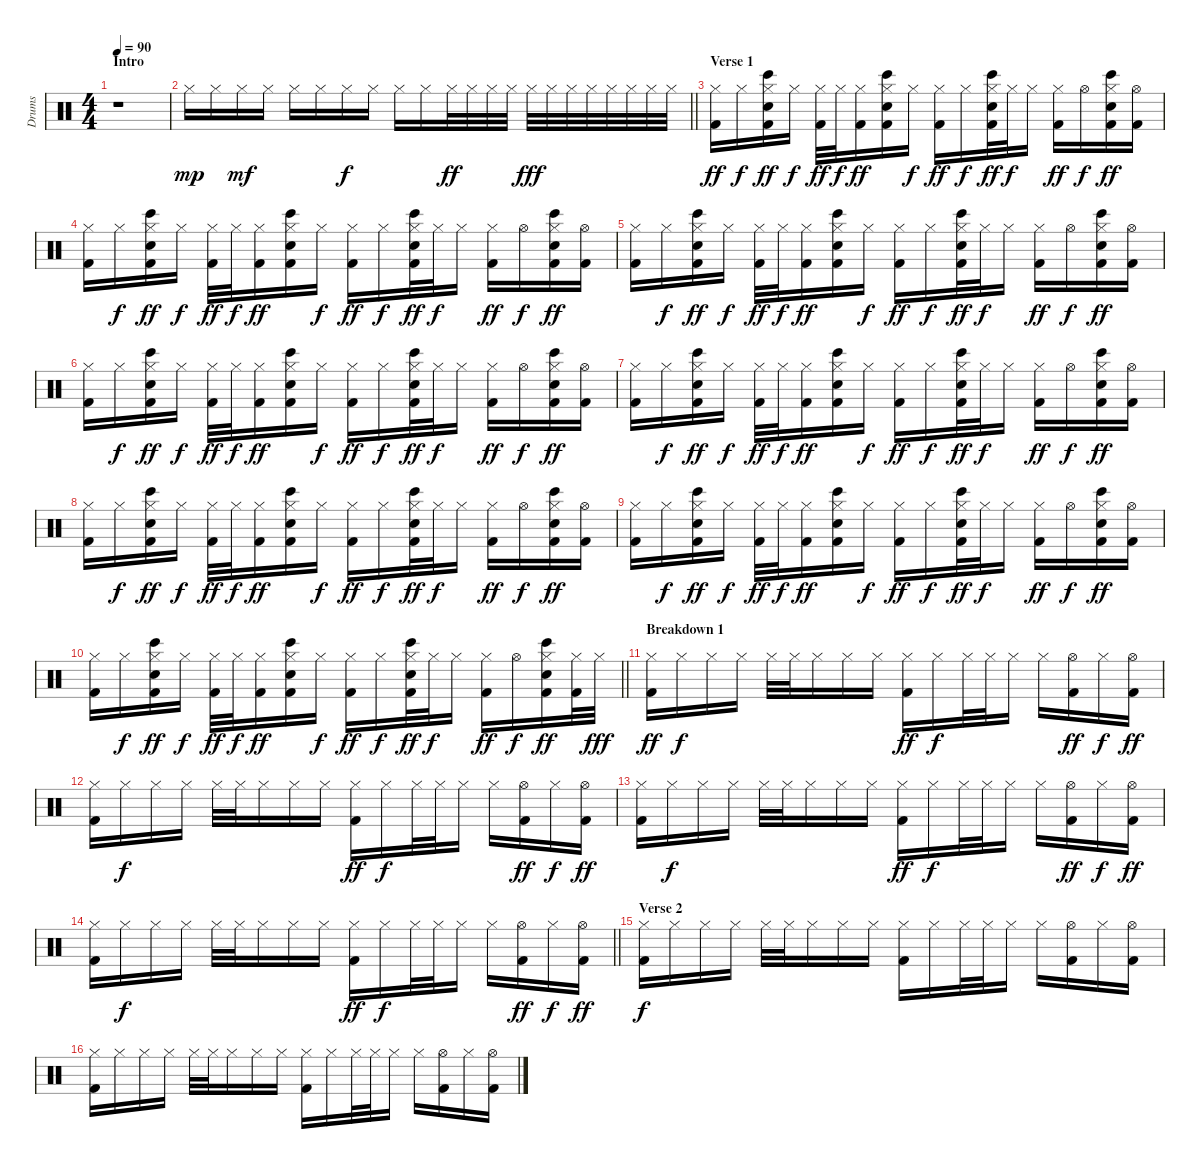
\track ("Drums" "Drums") {instrument percussion}
\staff {score}
\articulation defaults
\ts (4 4)
\section ("" "Intro")
\tempo 90
\clef neutral
\ks c
r.1{dy mp} |
\barLineRight lightlight "Hi-Hat (closed)".16 "Hi-Hat (closed)".16 "Hi-Hat (closed)".16{dy mf} "Hi-Hat (closed)".16 "Hi-Hat (closed)".16 "Hi-Hat (closed)".16 "Hi-Hat (closed)".16{dy f} "Hi-Hat (closed)".16 "Hi-Hat (closed)".16 "Hi-Hat (closed)".16 "Hi-Hat (closed)".32{dy ff} "Hi-Hat (closed)".32 "Hi-Hat (closed)".32 "Hi-Hat (closed)".32 "Hi-Hat (closed)".32{dy fff} "Hi-Hat (closed)".32 "Hi-Hat (closed)".32 "Hi-Hat (closed)".32 "Hi-Hat (closed)".32 "Hi-Hat (closed)".32 "Hi-Hat (closed)".32 "Hi-Hat (closed)".32
|
\section ("" "Verse 1")
("Hi-Hat (closed)" "Kick (hit) 2").16{dy ff} "Hi-Hat (closed)".16{dy f} ("Hi-Hat (closed)" "Electric Snare (hit)" "Bongo High (hit)" "Kick (hit) 2").16{dy ff} "Hi-Hat (closed)".16{dy f} ("Hi-Hat (closed)" "Kick (hit) 2").32{dy ff} "Hi-Hat (closed)".32{dy f} ("Hi-Hat (closed)" "Kick (hit) 2").16{dy ff} ("Hi-Hat (closed)" "Electric Snare (hit)" "Bongo High (hit)" "Kick (hit) 2").16 "Hi-Hat (closed)".16{dy f} ("Hi-Hat (closed)" "Kick (hit) 2").16{dy ff} "Hi-Hat (closed)".16{dy f} ("Hi-Hat (closed)" "Electric Snare (hit)" "Bongo High (hit)" "Kick (hit) 2").32{dy ff} "Hi-Hat (closed)".32{dy f} "Hi-Hat (closed)".16 ("Hi-Hat (closed)" "Kick (hit) 2").16{dy ff} "Hi-Hat (open)".16{dy f} ("Hi-Hat (closed)" "Electric Snare (hit)" "Bongo High (hit)" "Kick (hit) 2").16{dy ff} ("Hi-Hat (open)" "Kick (hit) 2").16 |
("Hi-Hat (closed)" "Kick (hit) 2").16 "Hi-Hat (closed)".16{dy f} ("Hi-Hat (closed)" "Electric Snare (hit)" "Bongo High (hit)" "Kick (hit) 2").16{dy ff} "Hi-Hat (closed)".16{dy f} ("Hi-Hat (closed)" "Kick (hit) 2").32{dy ff} "Hi-Hat (closed)".32{dy f} ("Hi-Hat (closed)" "Kick (hit) 2").16{dy ff} ("Hi-Hat (closed)" "Electric Snare (hit)" "Bongo High (hit)" "Kick (hit) 2").16 "Hi-Hat (closed)".16{dy f} ("Hi-Hat (closed)" "Kick (hit) 2").16{dy ff} "Hi-Hat (closed)".16{dy f} ("Hi-Hat (closed)" "Electric Snare (hit)" "Bongo High (hit)" "Kick (hit) 2").32{dy ff} "Hi-Hat (closed)".32{dy f} "Hi-Hat (closed)".16 ("Hi-Hat (closed)" "Kick (hit) 2").16{dy ff} "Hi-Hat (open)".16{dy f} ("Hi-Hat (closed)" "Electric Snare (hit)" "Bongo High (hit)" "Kick (hit) 2").16{dy ff} ("Hi-Hat (open)" "Kick (hit) 2").16 |
("Hi-Hat (closed)" "Kick (hit) 2").16 "Hi-Hat (closed)".16{dy f} ("Hi-Hat (closed)" "Electric Snare (hit)" "Bongo High (hit)" "Kick (hit) 2").16{dy ff} "Hi-Hat (closed)".16{dy f} ("Hi-Hat (closed)" "Kick (hit) 2").32{dy ff} "Hi-Hat (closed)".32{dy f} ("Hi-Hat (closed)" "Kick (hit) 2").16{dy ff} ("Hi-Hat (closed)" "Electric Snare (hit)" "Bongo High (hit)" "Kick (hit) 2").16 "Hi-Hat (closed)".16{dy f} ("Hi-Hat (closed)" "Kick (hit) 2").16{dy ff} "Hi-Hat (closed)".16{dy f} ("Hi-Hat (closed)" "Electric Snare (hit)" "Bongo High (hit)" "Kick (hit) 2").32{dy ff} "Hi-Hat (closed)".32{dy f} "Hi-Hat (closed)".16 ("Hi-Hat (closed)" "Kick (hit) 2").16{dy ff} "Hi-Hat (open)".16{dy f} ("Hi-Hat (closed)" "Electric Snare (hit)" "Bongo High (hit)" "Kick (hit) 2").16{dy ff} ("Hi-Hat (open)" "Kick (hit) 2").16 |
("Hi-Hat (closed)" "Kick (hit) 2").16 "Hi-Hat (closed)".16{dy f} ("Hi-Hat (closed)" "Electric Snare (hit)" "Bongo High (hit)" "Kick (hit) 2").16{dy ff} "Hi-Hat (closed)".16{dy f} ("Hi-Hat (closed)" "Kick (hit) 2").32{dy ff} "Hi-Hat (closed)".32{dy f} ("Hi-Hat (closed)" "Kick (hit) 2").16{dy ff} ("Hi-Hat (closed)" "Electric Snare (hit)" "Bongo High (hit)" "Kick (hit) 2").16 "Hi-Hat (closed)".16{dy f} ("Hi-Hat (closed)" "Kick (hit) 2").16{dy ff} "Hi-Hat (closed)".16{dy f} ("Hi-Hat (closed)" "Electric Snare (hit)" "Bongo High (hit)" "Kick (hit) 2").32{dy ff} "Hi-Hat (closed)".32{dy f} "Hi-Hat (closed)".16 ("Hi-Hat (closed)" "Kick (hit) 2").16{dy ff} "Hi-Hat (open)".16{dy f} ("Hi-Hat (closed)" "Electric Snare (hit)" "Bongo High (hit)" "Kick (hit) 2").16{dy ff} ("Hi-Hat (open)" "Kick (hit) 2").16 |
("Hi-Hat (closed)" "Kick (hit) 2").16 "Hi-Hat (closed)".16{dy f} ("Hi-Hat (closed)" "Electric Snare (hit)" "Bongo High (hit)" "Kick (hit) 2").16{dy ff} "Hi-Hat (closed)".16{dy f} ("Hi-Hat (closed)" "Kick (hit) 2").32{dy ff} "Hi-Hat (closed)".32{dy f} ("Hi-Hat (closed)" "Kick (hit) 2").16{dy ff} ("Hi-Hat (closed)" "Electric Snare (hit)" "Bongo High (hit)" "Kick (hit) 2").16 "Hi-Hat (closed)".16{dy f} ("Hi-Hat (closed)" "Kick (hit) 2").16{dy ff} "Hi-Hat (closed)".16{dy f} ("Hi-Hat (closed)" "Electric Snare (hit)" "Bongo High (hit)" "Kick (hit) 2").32{dy ff} "Hi-Hat (closed)".32{dy f} "Hi-Hat (closed)".16 ("Hi-Hat (closed)" "Kick (hit) 2").16{dy ff} "Hi-Hat (open)".16{dy f} ("Hi-Hat (closed)" "Electric Snare (hit)" "Bongo High (hit)" "Kick (hit) 2").16{dy ff} ("Hi-Hat (open)" "Kick (hit) 2").16 |
("Hi-Hat (closed)" "Kick (hit) 2").16 "Hi-Hat (closed)".16{dy f} ("Hi-Hat (closed)" "Electric Snare (hit)" "Bongo High (hit)" "Kick (hit) 2").16{dy ff} "Hi-Hat (closed)".16{dy f} ("Hi-Hat (closed)" "Kick (hit) 2").32{dy ff} "Hi-Hat (closed)".32{dy f} ("Hi-Hat (closed)" "Kick (hit) 2").16{dy ff} ("Hi-Hat (closed)" "Electric Snare (hit)" "Bongo High (hit)" "Kick (hit) 2").16 "Hi-Hat (closed)".16{dy f} ("Hi-Hat (closed)" "Kick (hit) 2").16{dy ff} "Hi-Hat (closed)".16{dy f} ("Hi-Hat (closed)" "Electric Snare (hit)" "Bongo High (hit)" "Kick (hit) 2").32{dy ff} "Hi-Hat (closed)".32{dy f} "Hi-Hat (closed)".16 ("Hi-Hat (closed)" "Kick (hit) 2").16{dy ff} "Hi-Hat (open)".16{dy f} ("Hi-Hat (closed)" "Electric Snare (hit)" "Bongo High (hit)" "Kick (hit) 2").16{dy ff} ("Hi-Hat (open)" "Kick (hit) 2").16 |
("Hi-Hat (closed)" "Kick (hit) 2").16 "Hi-Hat (closed)".16{dy f} ("Hi-Hat (closed)" "Electric Snare (hit)" "Bongo High (hit)" "Kick (hit) 2").16{dy ff} "Hi-Hat (closed)".16{dy f} ("Hi-Hat (closed)" "Kick (hit) 2").32{dy ff} "Hi-Hat (closed)".32{dy f} ("Hi-Hat (closed)" "Kick (hit) 2").16{dy ff} ("Hi-Hat (closed)" "Electric Snare (hit)" "Bongo High (hit)" "Kick (hit) 2").16 "Hi-Hat (closed)".16{dy f} ("Hi-Hat (closed)" "Kick (hit) 2").16{dy ff} "Hi-Hat (closed)".16{dy f} ("Hi-Hat (closed)" "Electric Snare (hit)" "Bongo High (hit)" "Kick (hit) 2").32{dy ff} "Hi-Hat (closed)".32{dy f} "Hi-Hat (closed)".16 ("Hi-Hat (closed)" "Kick (hit) 2").16{dy ff} "Hi-Hat (open)".16{dy f} ("Hi-Hat (closed)" "Electric Snare (hit)" "Bongo High (hit)" "Kick (hit) 2").16{dy ff} ("Hi-Hat (open)" "Kick (hit) 2").16 |
\barLineRight lightlight
("Hi-Hat (closed)" "Kick (hit) 2").16 "Hi-Hat (closed)".16{dy f} ("Hi-Hat (closed)" "Electric Snare (hit)" "Bongo High (hit)" "Kick (hit) 2").16{dy ff} "Hi-Hat (closed)".16{dy f} ("Hi-Hat (closed)" "Kick (hit) 2").32{dy ff} "Hi-Hat (closed)".32{dy f} ("Hi-Hat (closed)" "Kick (hit) 2").16{dy ff} ("Hi-Hat (closed)" "Electric Snare (hit)" "Bongo High (hit)" "Kick (hit) 2").16 "Hi-Hat (closed)".16{dy f} ("Hi-Hat (closed)" "Kick (hit) 2").16{dy ff} "Hi-Hat (closed)".16{dy f} ("Hi-Hat (closed)" "Electric Snare (hit)" "Bongo High (hit)" "Kick (hit) 2").32{dy ff} "Hi-Hat (closed)".32{dy f} "Hi-Hat (closed)".16 ("Hi-Hat (closed)" "Kick (hit) 2").16{dy ff} "Hi-Hat (open)".16{dy f} ("Hi-Hat (closed)" "Electric Snare (hit)" "Bongo High (hit)" "Kick (hit) 2").16{dy ff} ("Hi-Hat (closed)" "Kick (hit) 2").32 "Hi-Hat (closed)".32{dy fff} |
\section ("" "Breakdown 1")
("Hi-Hat (closed)" "Kick (hit) 2").16{dy ff} "Hi-Hat (closed)".16{dy f} "Hi-Hat (closed)".16 "Hi-Hat (closed)".16 "Hi-Hat (closed)".32 "Hi-Hat (closed)".32 "Hi-Hat (closed)".16 "Hi-Hat (closed)".16 "Hi-Hat (closed)".16 ("Hi-Hat (closed)" "Kick (hit) 2").16{dy ff} "Hi-Hat (closed)".16{dy f} "Hi-Hat (closed)".32 "Hi-Hat (closed)".32 "Hi-Hat (closed)".16 "Hi-Hat (closed)".16 ("Hi-Hat (open)" "Kick (hit) 2").16{dy ff} "Hi-Hat (closed)".16{dy f} ("Hi-Hat (open)" "Kick (hit) 2").16{dy ff} |
("Hi-Hat (closed)" "Kick (hit) 2").16 "Hi-Hat (closed)".16{dy f} "Hi-Hat (closed)".16 "Hi-Hat (closed)".16 "Hi-Hat (closed)".32 "Hi-Hat (closed)".32 "Hi-Hat (closed)".16 "Hi-Hat (closed)".16 "Hi-Hat (closed)".16 ("Hi-Hat (closed)" "Kick (hit) 2").16{dy ff} "Hi-Hat (closed)".16{dy f} "Hi-Hat (closed)".32 "Hi-Hat (closed)".32 "Hi-Hat (closed)".16 "Hi-Hat (closed)".16 ("Hi-Hat (open)" "Kick (hit) 2").16{dy ff} "Hi-Hat (closed)".16{dy f} ("Hi-Hat (open)" "Kick (hit) 2").16{dy ff} |
("Hi-Hat (closed)" "Kick (hit) 2").16 "Hi-Hat (closed)".16{dy f} "Hi-Hat (closed)".16 "Hi-Hat (closed)".16 "Hi-Hat (closed)".32 "Hi-Hat (closed)".32 "Hi-Hat (closed)".16 "Hi-Hat (closed)".16 "Hi-Hat (closed)".16 ("Hi-Hat (closed)" "Kick (hit) 2").16{dy ff} "Hi-Hat (closed)".16{dy f} "Hi-Hat (closed)".32 "Hi-Hat (closed)".32 "Hi-Hat (closed)".16 "Hi-Hat (closed)".16 ("Hi-Hat (open)" "Kick (hit) 2").16{dy ff} "Hi-Hat (closed)".16{dy f} ("Hi-Hat (open)" "Kick (hit) 2").16{dy ff} |
\barLineRight lightlight
("Hi-Hat (closed)" "Kick (hit) 2").16 "Hi-Hat (closed)".16{dy f} "Hi-Hat (closed)".16 "Hi-Hat (closed)".16 "Hi-Hat (closed)".32 "Hi-Hat (closed)".32 "Hi-Hat (closed)".16 "Hi-Hat (closed)".16 "Hi-Hat (closed)".16 ("Hi-Hat (closed)" "Kick (hit) 2").16{dy ff} "Hi-Hat (closed)".16{dy f} "Hi-Hat (closed)".32 "Hi-Hat (closed)".32 "Hi-Hat (closed)".16 "Hi-Hat (closed)".16 ("Hi-Hat (open)" "Kick (hit) 2").16{dy ff} "Hi-Hat (closed)".16{dy f} ("Hi-Hat (open)" "Kick (hit) 2").16{dy ff} |
\section ("" "Verse 2")
("Hi-Hat (closed)" "Kick (hit) 2").16{dy f} "Hi-Hat (closed)".16 "Hi-Hat (closed)".16 "Hi-Hat (closed)".16 "Hi-Hat (closed)".32 "Hi-Hat (closed)".32 "Hi-Hat (closed)".16 "Hi-Hat (closed)".16 "Hi-Hat (closed)".16 ("Hi-Hat (closed)" "Kick (hit) 2").16 "Hi-Hat (closed)".16 "Hi-Hat (closed)".32 "Hi-Hat (closed)".32 "Hi-Hat (closed)".16 "Hi-Hat (closed)".16 ("Hi-Hat (open)" "Kick (hit) 2").16 "Hi-Hat (closed)".16 ("Hi-Hat (open)" "Kick (hit) 2").16 |
("Hi-Hat (closed)" "Kick (hit) 2").16 "Hi-Hat (closed)".16 "Hi-Hat (closed)".16 "Hi-Hat (closed)".16 "Hi-Hat (closed)".32 "Hi-Hat (closed)".32 "Hi-Hat (closed)".16 "Hi-Hat (closed)".16 "Hi-Hat (closed)".16 ("Hi-Hat (closed)" "Kick (hit) 2").16 "Hi-Hat (closed)".16 "Hi-Hat (closed)".32 "Hi-Hat (closed)".32 "Hi-Hat (closed)".16 "Hi-Hat (closed)".16 ("Hi-Hat (open)" "Kick (hit) 2").16 "Hi-Hat (closed)".16 ("Hi-Hat (open)" "Kick (hit) 2").16
